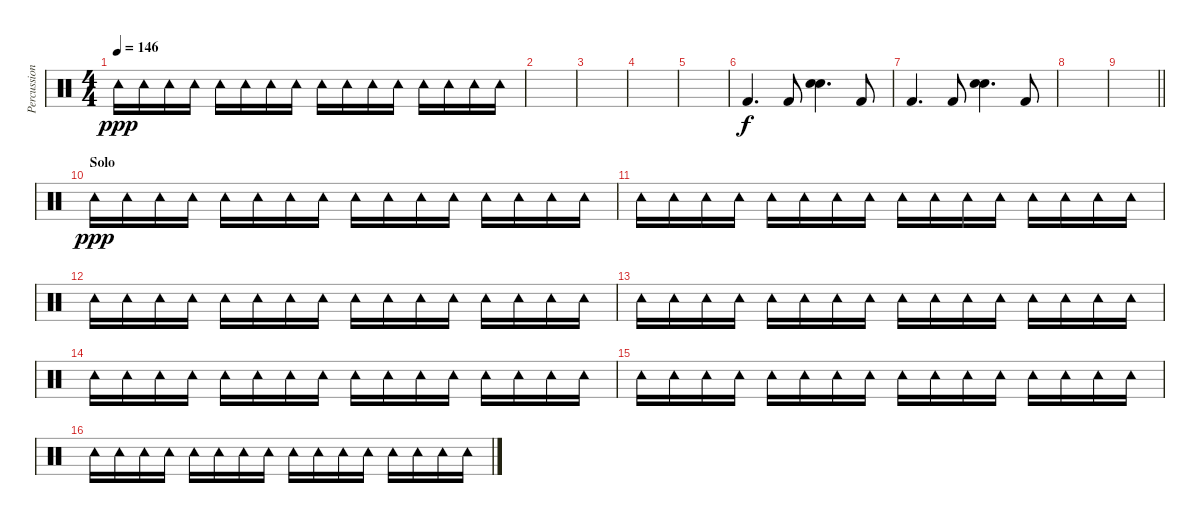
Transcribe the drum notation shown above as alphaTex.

\track ("Percussion" "Percussion") {instrument percussion}
\staff {score}
\articulation defaults
\ts (4 4)
\tempo 146
\clef neutral
\ks c "Tambourine (hit)".16{dy ppp} "Tambourine (hit)".16 "Tambourine (hit)".16 "Tambourine (hit)".16 "Tambourine (hit)".16 "Tambourine (hit)".16 "Tambourine (hit)".16 "Tambourine (hit)".16 "Tambourine (hit)".16 "Tambourine (hit)".16 "Tambourine (hit)".16 "Tambourine (hit)".16 "Tambourine (hit)".16 "Tambourine (hit)".16 "Tambourine (hit)".16 "Tambourine (hit)".16
|
|
|
|
|
"Kick (hit) 2".4{d dy f} "Kick (hit) 2".8 ("Snare (hit) 2" "Hand Clap (hit)").4{d} "Kick (hit) 2".8 |
"Kick (hit) 2".4{d} "Kick (hit) 2".8 ("Snare (hit) 2" "Hand Clap (hit)").4{d} "Kick (hit) 2".8 |
|
\barLineRight lightlight
|
\section ("" "Solo")
"Tambourine (hit)".16{dy ppp} "Tambourine (hit)".16 "Tambourine (hit)".16 "Tambourine (hit)".16 "Tambourine (hit)".16 "Tambourine (hit)".16 "Tambourine (hit)".16 "Tambourine (hit)".16 "Tambourine (hit)".16 "Tambourine (hit)".16 "Tambourine (hit)".16 "Tambourine (hit)".16 "Tambourine (hit)".16 "Tambourine (hit)".16 "Tambourine (hit)".16 "Tambourine (hit)".16 |
"Tambourine (hit)".16 "Tambourine (hit)".16 "Tambourine (hit)".16 "Tambourine (hit)".16 "Tambourine (hit)".16 "Tambourine (hit)".16 "Tambourine (hit)".16 "Tambourine (hit)".16 "Tambourine (hit)".16 "Tambourine (hit)".16 "Tambourine (hit)".16 "Tambourine (hit)".16 "Tambourine (hit)".16 "Tambourine (hit)".16 "Tambourine (hit)".16 "Tambourine (hit)".16 |
"Tambourine (hit)".16 "Tambourine (hit)".16 "Tambourine (hit)".16 "Tambourine (hit)".16 "Tambourine (hit)".16 "Tambourine (hit)".16 "Tambourine (hit)".16 "Tambourine (hit)".16 "Tambourine (hit)".16 "Tambourine (hit)".16 "Tambourine (hit)".16 "Tambourine (hit)".16 "Tambourine (hit)".16 "Tambourine (hit)".16 "Tambourine (hit)".16 "Tambourine (hit)".16 |
"Tambourine (hit)".16 "Tambourine (hit)".16 "Tambourine (hit)".16 "Tambourine (hit)".16 "Tambourine (hit)".16 "Tambourine (hit)".16 "Tambourine (hit)".16 "Tambourine (hit)".16 "Tambourine (hit)".16 "Tambourine (hit)".16 "Tambourine (hit)".16 "Tambourine (hit)".16 "Tambourine (hit)".16 "Tambourine (hit)".16 "Tambourine (hit)".16 "Tambourine (hit)".16 |
"Tambourine (hit)".16 "Tambourine (hit)".16 "Tambourine (hit)".16 "Tambourine (hit)".16 "Tambourine (hit)".16 "Tambourine (hit)".16 "Tambourine (hit)".16 "Tambourine (hit)".16 "Tambourine (hit)".16 "Tambourine (hit)".16 "Tambourine (hit)".16 "Tambourine (hit)".16 "Tambourine (hit)".16 "Tambourine (hit)".16 "Tambourine (hit)".16 "Tambourine (hit)".16 |
"Tambourine (hit)".16 "Tambourine (hit)".16 "Tambourine (hit)".16 "Tambourine (hit)".16 "Tambourine (hit)".16 "Tambourine (hit)".16 "Tambourine (hit)".16 "Tambourine (hit)".16 "Tambourine (hit)".16 "Tambourine (hit)".16 "Tambourine (hit)".16 "Tambourine (hit)".16 "Tambourine (hit)".16 "Tambourine (hit)".16 "Tambourine (hit)".16 "Tambourine (hit)".16 |
"Tambourine (hit)".16 "Tambourine (hit)".16 "Tambourine (hit)".16 "Tambourine (hit)".16 "Tambourine (hit)".16 "Tambourine (hit)".16 "Tambourine (hit)".16 "Tambourine (hit)".16 "Tambourine (hit)".16 "Tambourine (hit)".16 "Tambourine (hit)".16 "Tambourine (hit)".16 "Tambourine (hit)".16 "Tambourine (hit)".16 "Tambourine (hit)".16 "Tambourine (hit)".16
